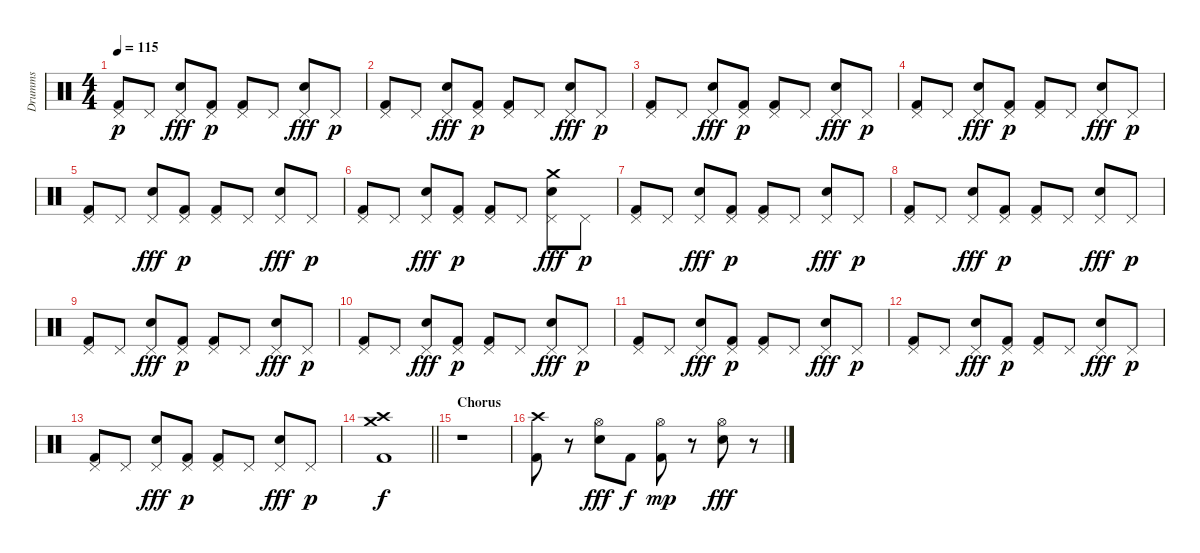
\track ("Drumms" "Drumms") {instrument percussion}
\staff {score}
\articulation defaults
\ts (4 4)
\tempo 115
\clef neutral
\ks c
("Pedal Hi-Hat (hit)" "Kick (hit) 2").8{dy p} "Pedal Hi-Hat (hit)".8 ("Pedal Hi-Hat (hit)" "Snare (hit) 2").8{dy fff} ("Pedal Hi-Hat (hit)" "Kick (hit) 2").8{dy p} ("Pedal Hi-Hat (hit)" "Kick (hit) 2").8 "Pedal Hi-Hat (hit)".8 ("Pedal Hi-Hat (hit)" "Snare (hit) 2").8{dy fff} "Pedal Hi-Hat (hit)".8{dy p} |
("Pedal Hi-Hat (hit)" "Kick (hit) 2").8 "Pedal Hi-Hat (hit)".8 ("Pedal Hi-Hat (hit)" "Snare (hit) 2").8{dy fff} ("Pedal Hi-Hat (hit)" "Kick (hit) 2").8{dy p} ("Pedal Hi-Hat (hit)" "Kick (hit) 2").8 "Pedal Hi-Hat (hit)".8 ("Pedal Hi-Hat (hit)" "Snare (hit) 2").8{dy fff} "Pedal Hi-Hat (hit)".8{dy p} |
("Pedal Hi-Hat (hit)" "Kick (hit) 2").8 "Pedal Hi-Hat (hit)".8 ("Pedal Hi-Hat (hit)" "Snare (hit) 2").8{dy fff} ("Pedal Hi-Hat (hit)" "Kick (hit) 2").8{dy p} ("Pedal Hi-Hat (hit)" "Kick (hit) 2").8 "Pedal Hi-Hat (hit)".8 ("Pedal Hi-Hat (hit)" "Snare (hit) 2").8{dy fff} "Pedal Hi-Hat (hit)".8{dy p} |
("Pedal Hi-Hat (hit)" "Kick (hit) 2").8 "Pedal Hi-Hat (hit)".8 ("Pedal Hi-Hat (hit)" "Snare (hit) 2").8{dy fff} ("Pedal Hi-Hat (hit)" "Kick (hit) 2").8{dy p} ("Pedal Hi-Hat (hit)" "Kick (hit) 2").8 "Pedal Hi-Hat (hit)".8 ("Pedal Hi-Hat (hit)" "Snare (hit) 2").8{dy fff} "Pedal Hi-Hat (hit)".8{dy p} |
("Pedal Hi-Hat (hit)" "Kick (hit) 2").8 "Pedal Hi-Hat (hit)".8 ("Pedal Hi-Hat (hit)" "Snare (hit) 2").8{dy fff} ("Pedal Hi-Hat (hit)" "Kick (hit) 2").8{dy p} ("Pedal Hi-Hat (hit)" "Kick (hit) 2").8 "Pedal Hi-Hat (hit)".8 ("Pedal Hi-Hat (hit)" "Snare (hit) 2").8{dy fff} "Pedal Hi-Hat (hit)".8{dy p} |
("Pedal Hi-Hat (hit)" "Kick (hit) 2").8 "Pedal Hi-Hat (hit)".8 ("Pedal Hi-Hat (hit)" "Snare (hit) 2").8{dy fff} ("Pedal Hi-Hat (hit)" "Kick (hit) 2").8{dy p} ("Pedal Hi-Hat (hit)" "Kick (hit) 2").8 "Pedal Hi-Hat (hit)".8 ("Pedal Hi-Hat (hit)" "Snare (hit) 2" "Crash medium (hit)").8{dy fff} "Pedal Hi-Hat (hit)".8{dy p} |
("Pedal Hi-Hat (hit)" "Kick (hit) 2").8 "Pedal Hi-Hat (hit)".8 ("Pedal Hi-Hat (hit)" "Snare (hit) 2").8{dy fff} ("Pedal Hi-Hat (hit)" "Kick (hit) 2").8{dy p} ("Pedal Hi-Hat (hit)" "Kick (hit) 2").8 "Pedal Hi-Hat (hit)".8 ("Pedal Hi-Hat (hit)" "Snare (hit) 2").8{dy fff} "Pedal Hi-Hat (hit)".8{dy p} |
("Pedal Hi-Hat (hit)" "Kick (hit) 2").8 "Pedal Hi-Hat (hit)".8 ("Pedal Hi-Hat (hit)" "Snare (hit) 2").8{dy fff} ("Pedal Hi-Hat (hit)" "Kick (hit) 2").8{dy p} ("Pedal Hi-Hat (hit)" "Kick (hit) 2").8 "Pedal Hi-Hat (hit)".8 ("Pedal Hi-Hat (hit)" "Snare (hit) 2").8{dy fff} "Pedal Hi-Hat (hit)".8{dy p} |
("Pedal Hi-Hat (hit)" "Kick (hit) 2").8 "Pedal Hi-Hat (hit)".8 ("Pedal Hi-Hat (hit)" "Snare (hit) 2").8{dy fff} ("Pedal Hi-Hat (hit)" "Kick (hit) 2").8{dy p} ("Pedal Hi-Hat (hit)" "Kick (hit) 2").8 "Pedal Hi-Hat (hit)".8 ("Pedal Hi-Hat (hit)" "Snare (hit) 2").8{dy fff} "Pedal Hi-Hat (hit)".8{dy p} |
("Pedal Hi-Hat (hit)" "Kick (hit) 2").8 "Pedal Hi-Hat (hit)".8 ("Pedal Hi-Hat (hit)" "Snare (hit) 2").8{dy fff} ("Pedal Hi-Hat (hit)" "Kick (hit) 2").8{dy p} ("Pedal Hi-Hat (hit)" "Kick (hit) 2").8 "Pedal Hi-Hat (hit)".8 ("Pedal Hi-Hat (hit)" "Snare (hit) 2").8{dy fff} "Pedal Hi-Hat (hit)".8{dy p} |
("Pedal Hi-Hat (hit)" "Kick (hit) 2").8 "Pedal Hi-Hat (hit)".8 ("Pedal Hi-Hat (hit)" "Snare (hit) 2").8{dy fff} ("Pedal Hi-Hat (hit)" "Kick (hit) 2").8{dy p} ("Pedal Hi-Hat (hit)" "Kick (hit) 2").8 "Pedal Hi-Hat (hit)".8 ("Pedal Hi-Hat (hit)" "Snare (hit) 2").8{dy fff} "Pedal Hi-Hat (hit)".8{dy p} |
("Pedal Hi-Hat (hit)" "Kick (hit) 2").8 "Pedal Hi-Hat (hit)".8 ("Pedal Hi-Hat (hit)" "Snare (hit) 2").8{dy fff} ("Pedal Hi-Hat (hit)" "Kick (hit) 2").8{dy p} ("Pedal Hi-Hat (hit)" "Kick (hit) 2").8 "Pedal Hi-Hat (hit)".8 ("Pedal Hi-Hat (hit)" "Snare (hit) 2").8{dy fff} "Pedal Hi-Hat (hit)".8{dy p} |
("Pedal Hi-Hat (hit)" "Kick (hit) 2").8 "Pedal Hi-Hat (hit)".8 ("Pedal Hi-Hat (hit)" "Snare (hit) 2").8{dy fff} ("Pedal Hi-Hat (hit)" "Kick (hit) 2").8{dy p} ("Pedal Hi-Hat (hit)" "Kick (hit) 2").8 "Pedal Hi-Hat (hit)".8 ("Pedal Hi-Hat (hit)" "Snare (hit) 2").8{dy fff} "Pedal Hi-Hat (hit)".8{dy p} |
\barLineRight lightlight
("Crash high (hit)" "Crash medium (hit)" "Kick (hit) 2").1{dy f} |
\section ("" "Chorus")
r.1 |
("Crash high (hit)" "Kick (hit) 2").8 r.8 ("Hi-Hat (open)" "Snare (hit) 2").8{dy fff} "Kick (hit) 2".8{dy f} ("Hi-Hat (open)" "Kick (hit) 2").8{dy mp} r.8 ("Hi-Hat (open)" "Snare (hit) 2").8{dy fff} r.8
